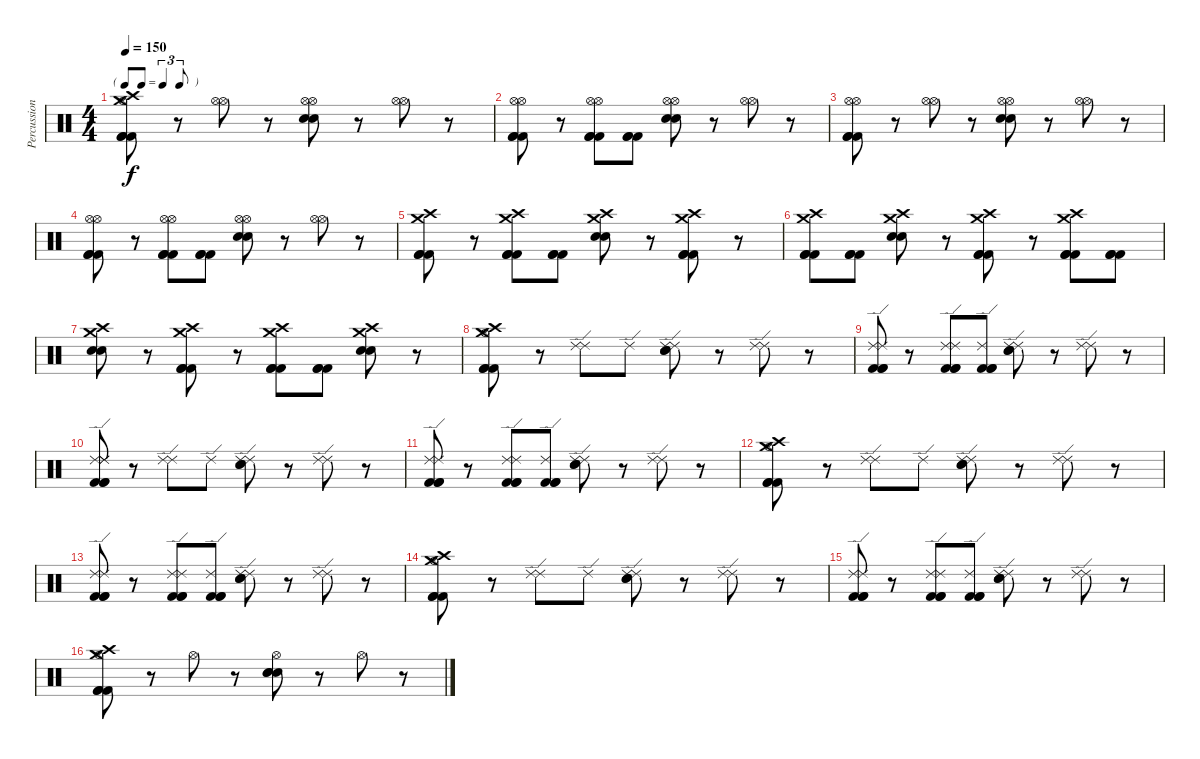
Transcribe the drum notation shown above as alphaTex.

\track ("Percussion" "Percussion") {instrument percussion}
\staff {score}
\articulation defaults
\ts (4 4)
\tf triplet8th
\tempo 150
\clef neutral
\ks c
("Hi-Hat (open)" "Crash high (hit)" "Crash medium (hit)" "Kick (hit) 2" "Kick (hit) 2" "Kick (hit) 2").8{dy f} r.8 ("Hi-Hat (open)" "Hi-Hat (open)").8 r.8 ("Hi-Hat (open)" "Hi-Hat (open)" "Electric Snare (hit)" "Electric Snare (hit)").8 r.8 ("Hi-Hat (open)" "Hi-Hat (open)").8 r.8 |
("Hi-Hat (open)" "Hi-Hat (open)" "Kick (hit) 2" "Kick (hit) 2" "Kick (hit) 2").8 r.8 ("Hi-Hat (open)" "Hi-Hat (open)" "Kick (hit) 2" "Kick (hit) 2" "Kick (hit) 2").8 ("Kick (hit) 2" "Kick (hit) 2" "Kick (hit) 2").8 ("Hi-Hat (open)" "Hi-Hat (open)" "Electric Snare (hit)" "Electric Snare (hit)").8 r.8 ("Hi-Hat (open)" "Hi-Hat (open)").8 r.8 |
("Hi-Hat (open)" "Hi-Hat (open)" "Kick (hit) 2" "Kick (hit) 2" "Kick (hit) 2").8 r.8 ("Hi-Hat (open)" "Hi-Hat (open)").8 r.8 ("Hi-Hat (open)" "Hi-Hat (open)" "Electric Snare (hit)" "Electric Snare (hit)").8 r.8 ("Hi-Hat (open)" "Hi-Hat (open)").8 r.8 |
("Hi-Hat (open)" "Hi-Hat (open)" "Kick (hit) 2" "Kick (hit) 2" "Kick (hit) 2").8 r.8 ("Hi-Hat (open)" "Hi-Hat (open)" "Kick (hit) 2" "Kick (hit) 2" "Kick (hit) 2").8 ("Kick (hit) 2" "Kick (hit) 2" "Kick (hit) 2").8 ("Hi-Hat (open)" "Hi-Hat (open)" "Electric Snare (hit)" "Electric Snare (hit)").8 r.8 ("Hi-Hat (open)" "Hi-Hat (open)").8 r.8 |
("Crash high (hit)" "Crash medium (hit)" "Kick (hit) 2" "Kick (hit) 2" "Kick (hit) 2").8 r.8 ("Crash high (hit)" "Crash medium (hit)" "Kick (hit) 2" "Kick (hit) 2" "Kick (hit) 2").8 ("Kick (hit) 2" "Kick (hit) 2" "Kick (hit) 2").8 ("Crash high (hit)" "Crash medium (hit)" "Electric Snare (hit)" "Electric Snare (hit)").8 r.8 ("Crash high (hit)" "Crash medium (hit)" "Kick (hit) 2" "Kick (hit) 2" "Kick (hit) 2").8 r.8 |
("Crash high (hit)" "Crash medium (hit)" "Kick (hit) 2" "Kick (hit) 2" "Kick (hit) 2").8 ("Kick (hit) 2" "Kick (hit) 2" "Kick (hit) 2").8 ("Crash high (hit)" "Crash medium (hit)" "Electric Snare (hit)" "Electric Snare (hit)").8 r.8 ("Crash high (hit)" "Crash medium (hit)" "Kick (hit) 2" "Kick (hit) 2" "Kick (hit) 2").8 r.8 ("Crash high (hit)" "Crash medium (hit)" "Kick (hit) 2" "Kick (hit) 2" "Kick (hit) 2").8 ("Kick (hit) 2" "Kick (hit) 2" "Kick (hit) 2").8 |
("Crash high (hit)" "Crash medium (hit)" "Electric Snare (hit)" "Electric Snare (hit)").8 r.8 ("Crash high (hit)" "Crash medium (hit)" "Kick (hit) 2" "Kick (hit) 2" "Kick (hit) 2").8 r.8 ("Crash high (hit)" "Crash medium (hit)" "Kick (hit) 2" "Kick (hit) 2" "Kick (hit) 2").8 ("Kick (hit) 2" "Kick (hit) 2" "Kick (hit) 2").8 ("Crash high (hit)" "Crash medium (hit)" "Electric Snare (hit)" "Electric Snare (hit)").8 r.8 |
("Hi-Hat (open)" "Crash high (hit)" "Crash medium (hit)" "Kick (hit) 2" "Kick (hit) 2" "Kick (hit) 2").8 r.8 ("Ride (edge) 2" "Ride (edge) 2").8 "Ride (edge) 2".8 ("Ride (edge) 2" "Ride (edge) 2" "Electric Snare (hit)" "Electric Snare (hit)").8 r.8 ("Ride (edge) 2" "Ride (edge) 2").8 r.8 |
("Ride (edge) 2" "Ride (edge) 2" "Kick (hit) 2" "Kick (hit) 2" "Kick (hit) 2").8 r.8 ("Ride (edge) 2" "Ride (edge) 2" "Kick (hit) 2" "Kick (hit) 2" "Kick (hit) 2").8 ("Ride (edge) 2" "Kick (hit) 2" "Kick (hit) 2" "Kick (hit) 2").8 ("Ride (edge) 2" "Ride (edge) 2" "Electric Snare (hit)" "Electric Snare (hit)").8 r.8 ("Ride (edge) 2" "Ride (edge) 2").8 r.8 |
("Ride (edge) 2" "Ride (edge) 2" "Ride (edge) 2" "Kick (hit) 2" "Kick (hit) 2" "Kick (hit) 2").8 r.8 ("Ride (edge) 2" "Ride (edge) 2").8 "Ride (edge) 2".8 ("Ride (edge) 2" "Ride (edge) 2" "Electric Snare (hit)" "Electric Snare (hit)").8 r.8 ("Ride (edge) 2" "Ride (edge) 2").8 r.8 |
("Ride (edge) 2" "Ride (edge) 2" "Kick (hit) 2" "Kick (hit) 2" "Kick (hit) 2").8 r.8 ("Ride (edge) 2" "Ride (edge) 2" "Kick (hit) 2" "Kick (hit) 2" "Kick (hit) 2").8 ("Ride (edge) 2" "Kick (hit) 2" "Kick (hit) 2" "Kick (hit) 2").8 ("Ride (edge) 2" "Ride (edge) 2" "Electric Snare (hit)" "Electric Snare (hit)").8 r.8 ("Ride (edge) 2" "Ride (edge) 2").8 r.8 |
("Hi-Hat (open)" "Crash high (hit)" "Crash medium (hit)" "Kick (hit) 2" "Kick (hit) 2" "Kick (hit) 2").8 r.8 ("Ride (edge) 2" "Ride (edge) 2").8 "Ride (edge) 2".8 ("Ride (edge) 2" "Ride (edge) 2" "Electric Snare (hit)" "Electric Snare (hit)").8 r.8 ("Ride (edge) 2" "Ride (edge) 2").8 r.8 |
("Ride (edge) 2" "Ride (edge) 2" "Kick (hit) 2" "Kick (hit) 2" "Kick (hit) 2").8 r.8 ("Ride (edge) 2" "Ride (edge) 2" "Kick (hit) 2" "Kick (hit) 2" "Kick (hit) 2").8 ("Ride (edge) 2" "Kick (hit) 2" "Kick (hit) 2" "Kick (hit) 2").8 ("Ride (edge) 2" "Ride (edge) 2" "Electric Snare (hit)" "Electric Snare (hit)").8 r.8 ("Ride (edge) 2" "Ride (edge) 2").8 r.8 |
("Hi-Hat (open)" "Crash high (hit)" "Crash medium (hit)" "Kick (hit) 2" "Kick (hit) 2" "Kick (hit) 2").8 r.8 ("Ride (edge) 2" "Ride (edge) 2").8 "Ride (edge) 2".8 ("Ride (edge) 2" "Ride (edge) 2" "Electric Snare (hit)" "Electric Snare (hit)").8 r.8 ("Ride (edge) 2" "Ride (edge) 2").8 r.8 |
("Ride (edge) 2" "Ride (edge) 2" "Kick (hit) 2" "Kick (hit) 2" "Kick (hit) 2").8 r.8 ("Ride (edge) 2" "Ride (edge) 2" "Kick (hit) 2" "Kick (hit) 2" "Kick (hit) 2").8 ("Ride (edge) 2" "Kick (hit) 2" "Kick (hit) 2" "Kick (hit) 2").8 ("Ride (edge) 2" "Ride (edge) 2" "Electric Snare (hit)" "Electric Snare (hit)").8 r.8 ("Ride (edge) 2" "Ride (edge) 2").8 r.8 |
("Hi-Hat (open)" "Crash medium (hit)" "Crash high (hit)" "Kick (hit) 2" "Kick (hit) 2" "Kick (hit) 2").8 r.8 "Hi-Hat (open)".8 r.8 ("Hi-Hat (open)" "Electric Snare (hit)" "Electric Snare (hit)" "Electric Snare (hit)").8 r.8 "Hi-Hat (open)".8 r.8
